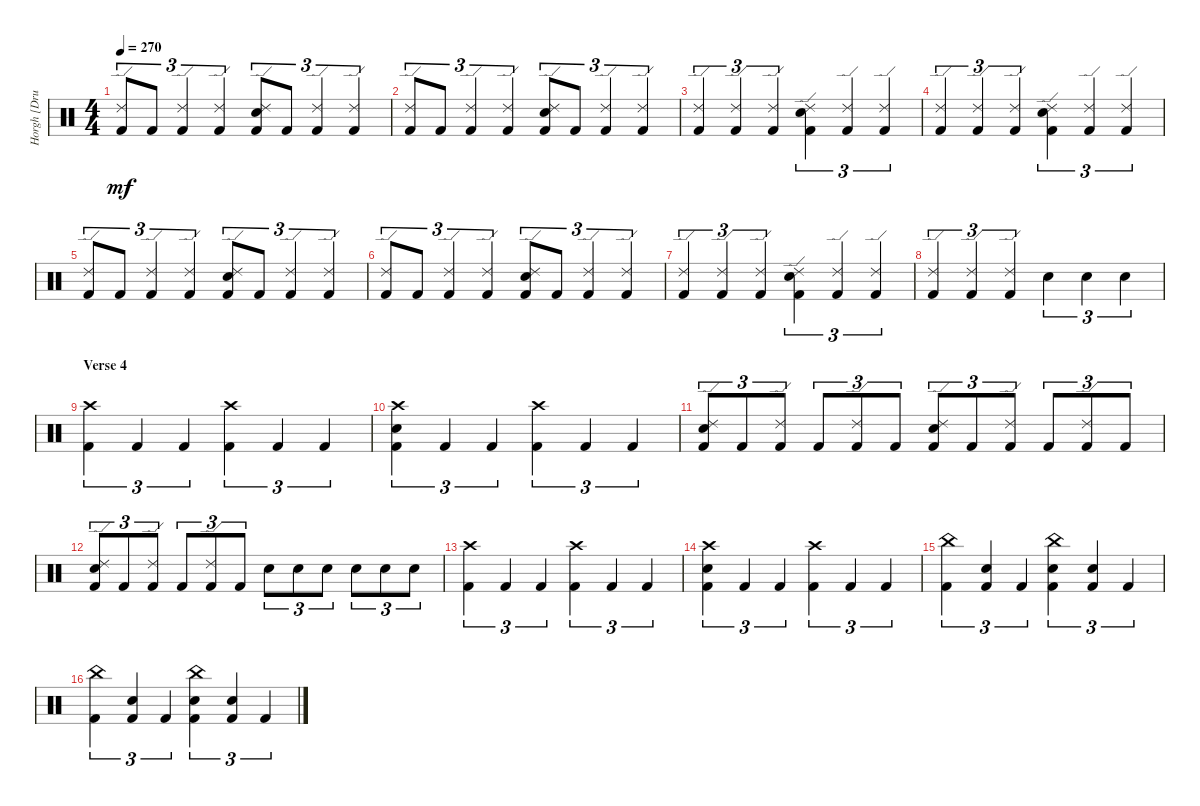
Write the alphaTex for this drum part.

\track ("Horgh [Drums]" "Horgh [Dru") {instrument percussion}
\staff {score}
\articulation defaults
\ts (4 4)
\tempo 270
\clef neutral
\ks c
("Ride (edge) 2" "Kick (hit) 2").8{tu (3 2) dy mf} "Kick (hit) 2".8{tu (3 2)} ("Ride (edge) 2" "Kick (hit) 2").4{tu (3 2)} ("Ride (edge) 2" "Kick (hit) 2").4{tu (3 2)} ("Ride (edge) 2" "Electric Snare (hit)" "Kick (hit) 2").8{tu (3 2)} "Kick (hit) 2".8{tu (3 2)} ("Ride (edge) 2" "Kick (hit) 2").4{tu (3 2)} ("Ride (edge) 2" "Kick (hit) 2").4{tu (3 2)} |
("Ride (edge) 2" "Kick (hit) 2").8{tu (3 2)} "Kick (hit) 2".8{tu (3 2)} ("Ride (edge) 2" "Kick (hit) 2").4{tu (3 2)} ("Ride (edge) 2" "Kick (hit) 2").4{tu (3 2)} ("Ride (edge) 2" "Electric Snare (hit)" "Kick (hit) 2").8{tu (3 2)} "Kick (hit) 2".8{tu (3 2)} ("Ride (edge) 2" "Kick (hit) 2").4{tu (3 2)} ("Ride (edge) 2" "Kick (hit) 2").4{tu (3 2)} |
("Ride (edge) 2" "Kick (hit) 2").4{tu (3 2)} ("Ride (edge) 2" "Kick (hit) 2").4{tu (3 2)} ("Ride (edge) 2" "Kick (hit) 2").4{tu (3 2)} ("Ride (edge) 2" "Electric Snare (hit)" "Kick (hit) 2").4{tu (3 2)} ("Ride (edge) 2" "Kick (hit) 2").4{tu (3 2)} ("Ride (edge) 2" "Kick (hit) 2").4{tu (3 2)} |
("Ride (edge) 2" "Kick (hit) 2").4{tu (3 2)} ("Ride (edge) 2" "Kick (hit) 2").4{tu (3 2)} ("Ride (edge) 2" "Kick (hit) 2").4{tu (3 2)} ("Ride (edge) 2" "Electric Snare (hit)" "Kick (hit) 2").4{tu (3 2)} ("Ride (edge) 2" "Kick (hit) 2").4{tu (3 2)} ("Ride (edge) 2" "Kick (hit) 2").4{tu (3 2)} |
("Ride (edge) 2" "Kick (hit) 2").8{tu (3 2)} "Kick (hit) 2".8{tu (3 2)} ("Ride (edge) 2" "Kick (hit) 2").4{tu (3 2)} ("Ride (edge) 2" "Kick (hit) 2").4{tu (3 2)} ("Ride (edge) 2" "Electric Snare (hit)" "Kick (hit) 2").8{tu (3 2)} "Kick (hit) 2".8{tu (3 2)} ("Ride (edge) 2" "Kick (hit) 2").4{tu (3 2)} ("Ride (edge) 2" "Kick (hit) 2").4{tu (3 2)} |
("Ride (edge) 2" "Kick (hit) 2").8{tu (3 2)} "Kick (hit) 2".8{tu (3 2)} ("Ride (edge) 2" "Kick (hit) 2").4{tu (3 2)} ("Ride (edge) 2" "Kick (hit) 2").4{tu (3 2)} ("Ride (edge) 2" "Electric Snare (hit)" "Kick (hit) 2").8{tu (3 2)} "Kick (hit) 2".8{tu (3 2)} ("Ride (edge) 2" "Kick (hit) 2").4{tu (3 2)} ("Ride (edge) 2" "Kick (hit) 2").4{tu (3 2)} |
("Ride (edge) 2" "Kick (hit) 2").4{tu (3 2)} ("Ride (edge) 2" "Kick (hit) 2").4{tu (3 2)} ("Ride (edge) 2" "Kick (hit) 2").4{tu (3 2)} ("Ride (edge) 2" "Electric Snare (hit)" "Kick (hit) 2").4{tu (3 2)} ("Ride (edge) 2" "Kick (hit) 2").4{tu (3 2)} ("Ride (edge) 2" "Kick (hit) 2").4{tu (3 2)} |
("Ride (edge) 2" "Kick (hit) 2").4{tu (3 2)} ("Ride (edge) 2" "Kick (hit) 2").4{tu (3 2)} ("Ride (edge) 2" "Kick (hit) 2").4{tu (3 2)} "Electric Snare (hit)".4{tu (3 2)} "Electric Snare (hit)".4{tu (3 2)} "Electric Snare (hit)".4{tu (3 2)} |
\section ("" "Verse 4")
("Crash high (hit)" "Kick (hit) 2").4{tu (3 2)} "Kick (hit) 2".4{tu (3 2)} "Kick (hit) 2".4{tu (3 2)} ("Crash high (hit)" "Kick (hit) 2").4{tu (3 2)} "Kick (hit) 2".4{tu (3 2)} "Kick (hit) 2".4{tu (3 2)} |
("Crash high (hit)" "Electric Snare (hit)" "Kick (hit) 2").4{tu (3 2)} "Kick (hit) 2".4{tu (3 2)} "Kick (hit) 2".4{tu (3 2)} ("Crash high (hit)" "Kick (hit) 2").4{tu (3 2)} "Kick (hit) 2".4{tu (3 2)} "Kick (hit) 2".4{tu (3 2)} |
("Ride (edge) 2" "Electric Snare (hit)" "Kick (hit) 2").8{tu (3 2)} "Kick (hit) 2".8{tu (3 2)} ("Ride (edge) 2" "Kick (hit) 2").8{tu (3 2)} "Kick (hit) 2".8{tu (3 2)} ("Ride (edge) 2" "Kick (hit) 2").8{tu (3 2)} "Kick (hit) 2".8{tu (3 2)} ("Ride (edge) 2" "Electric Snare (hit)" "Kick (hit) 2").8{tu (3 2)} "Kick (hit) 2".8{tu (3 2)} ("Ride (edge) 2" "Kick (hit) 2").8{tu (3 2)} "Kick (hit) 2".8{tu (3 2)} ("Ride (edge) 2" "Kick (hit) 2").8{tu (3 2)} "Kick (hit) 2".8{tu (3 2)} |
("Ride (edge) 2" "Electric Snare (hit)" "Kick (hit) 2").8{tu (3 2)} "Kick (hit) 2".8{tu (3 2)} ("Ride (edge) 2" "Kick (hit) 2").8{tu (3 2)} "Kick (hit) 2".8{tu (3 2)} ("Ride (edge) 2" "Kick (hit) 2").8{tu (3 2)} "Kick (hit) 2".8{tu (3 2)} "Electric Snare (hit)".8{tu (3 2)} "Electric Snare (hit)".8{tu (3 2)} "Electric Snare (hit)".8{tu (3 2)} "Electric Snare (hit)".8{tu (3 2)} "Electric Snare (hit)".8{tu (3 2)} "Electric Snare (hit)".8{tu (3 2)} |
("Crash high (hit)" "Kick (hit) 2").4{tu (3 2)} "Kick (hit) 2".4{tu (3 2)} "Kick (hit) 2".4{tu (3 2)} ("Crash high (hit)" "Kick (hit) 2").4{tu (3 2)} "Kick (hit) 2".4{tu (3 2)} "Kick (hit) 2".4{tu (3 2)} |
("Crash high (hit)" "Electric Snare (hit)" "Kick (hit) 2").4{tu (3 2)} "Kick (hit) 2".4{tu (3 2)} "Kick (hit) 2".4{tu (3 2)} ("Crash high (hit)" "Kick (hit) 2").4{tu (3 2)} "Kick (hit) 2".4{tu (3 2)} "Kick (hit) 2".4{tu (3 2)} |
("China (hit)" "Kick (hit) 2").4{tu (3 2)} ("Electric Snare (hit)" "Kick (hit) 2").4{tu (3 2)} "Kick (hit) 2".4{tu (3 2)} ("China (hit)" "Electric Snare (hit)" "Kick (hit) 2").4{tu (3 2)} ("Electric Snare (hit)" "Kick (hit) 2").4{tu (3 2)} "Kick (hit) 2".4{tu (3 2)} |
("China (hit)" "Kick (hit) 2").4{tu (3 2)} ("Electric Snare (hit)" "Kick (hit) 2").4{tu (3 2)} "Kick (hit) 2".4{tu (3 2)} ("China (hit)" "Electric Snare (hit)" "Kick (hit) 2").4{tu (3 2)} ("Electric Snare (hit)" "Kick (hit) 2").4{tu (3 2)} "Kick (hit) 2".4{tu (3 2)}
